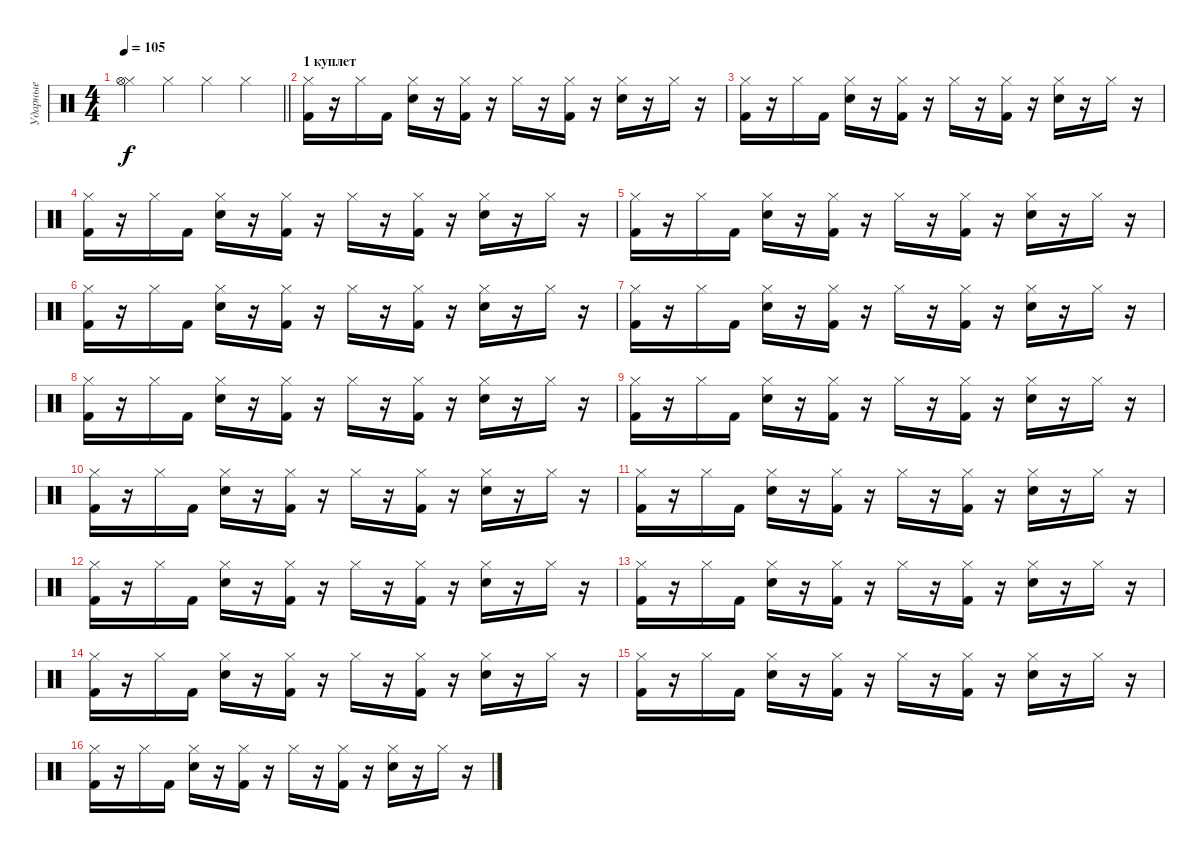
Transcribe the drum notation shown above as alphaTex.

\track ("Ударные" "Ударные") {instrument percussion}
\staff {score}
\articulation defaults
\ts (4 4)
\tempo 105
\clef neutral
\barLineRight lightlight
\ks c
("Hi-Hat (closed)" "Hi-Hat (open)").4{dy f} "Hi-Hat (closed)".4 "Hi-Hat (closed)".4 "Hi-Hat (closed)".4 |
\section ("" "1 куплет")
("Hi-Hat (closed)" "Kick (hit) 2").16 r.16 "Hi-Hat (closed)".16 "Kick (hit) 2".16 ("Hi-Hat (closed)" "Electric Snare (hit)").16 r.16 ("Hi-Hat (closed)" "Kick (hit) 2").16 r.16 "Hi-Hat (closed)".16 r.16 ("Hi-Hat (closed)" "Kick (hit) 2").16 r.16 ("Hi-Hat (closed)" "Electric Snare (hit)").16 r.16 "Hi-Hat (closed)".16 r.16 |
("Hi-Hat (closed)" "Kick (hit) 2").16 r.16 "Hi-Hat (closed)".16 "Kick (hit) 2".16 ("Hi-Hat (closed)" "Electric Snare (hit)").16 r.16 ("Hi-Hat (closed)" "Kick (hit) 2").16 r.16 "Hi-Hat (closed)".16 r.16 ("Hi-Hat (closed)" "Kick (hit) 2").16 r.16 ("Hi-Hat (closed)" "Electric Snare (hit)").16 r.16 "Hi-Hat (closed)".16 r.16 |
("Hi-Hat (closed)" "Kick (hit) 2").16 r.16 "Hi-Hat (closed)".16 "Kick (hit) 2".16 ("Hi-Hat (closed)" "Electric Snare (hit)").16 r.16 ("Hi-Hat (closed)" "Kick (hit) 2").16 r.16 "Hi-Hat (closed)".16 r.16 ("Hi-Hat (closed)" "Kick (hit) 2").16 r.16 ("Hi-Hat (closed)" "Electric Snare (hit)").16 r.16 "Hi-Hat (closed)".16 r.16 |
("Hi-Hat (closed)" "Kick (hit) 2").16 r.16 "Hi-Hat (closed)".16 "Kick (hit) 2".16 ("Hi-Hat (closed)" "Electric Snare (hit)").16 r.16 ("Hi-Hat (closed)" "Kick (hit) 2").16 r.16 "Hi-Hat (closed)".16 r.16 ("Hi-Hat (closed)" "Kick (hit) 2").16 r.16 ("Hi-Hat (closed)" "Electric Snare (hit)").16 r.16 "Hi-Hat (closed)".16 r.16 |
("Hi-Hat (closed)" "Kick (hit) 2").16 r.16 "Hi-Hat (closed)".16 "Kick (hit) 2".16 ("Hi-Hat (closed)" "Electric Snare (hit)").16 r.16 ("Hi-Hat (closed)" "Kick (hit) 2").16 r.16 "Hi-Hat (closed)".16 r.16 ("Hi-Hat (closed)" "Kick (hit) 2").16 r.16 ("Hi-Hat (closed)" "Electric Snare (hit)").16 r.16 "Hi-Hat (closed)".16 r.16 |
("Hi-Hat (closed)" "Kick (hit) 2").16 r.16 "Hi-Hat (closed)".16 "Kick (hit) 2".16 ("Hi-Hat (closed)" "Electric Snare (hit)").16 r.16 ("Hi-Hat (closed)" "Kick (hit) 2").16 r.16 "Hi-Hat (closed)".16 r.16 ("Hi-Hat (closed)" "Kick (hit) 2").16 r.16 ("Hi-Hat (closed)" "Electric Snare (hit)").16 r.16 "Hi-Hat (closed)".16 r.16 |
("Hi-Hat (closed)" "Kick (hit) 2").16 r.16 "Hi-Hat (closed)".16 "Kick (hit) 2".16 ("Hi-Hat (closed)" "Electric Snare (hit)").16 r.16 ("Hi-Hat (closed)" "Kick (hit) 2").16 r.16 "Hi-Hat (closed)".16 r.16 ("Hi-Hat (closed)" "Kick (hit) 2").16 r.16 ("Hi-Hat (closed)" "Electric Snare (hit)").16 r.16 "Hi-Hat (closed)".16 r.16 |
("Hi-Hat (closed)" "Kick (hit) 2").16 r.16 "Hi-Hat (closed)".16 "Kick (hit) 2".16 ("Hi-Hat (closed)" "Electric Snare (hit)").16 r.16 ("Hi-Hat (closed)" "Kick (hit) 2").16 r.16 "Hi-Hat (closed)".16 r.16 ("Hi-Hat (closed)" "Kick (hit) 2").16 r.16 ("Hi-Hat (closed)" "Electric Snare (hit)").16 r.16 "Hi-Hat (closed)".16 r.16 |
("Hi-Hat (closed)" "Kick (hit) 2").16 r.16 "Hi-Hat (closed)".16 "Kick (hit) 2".16 ("Hi-Hat (closed)" "Electric Snare (hit)").16 r.16 ("Hi-Hat (closed)" "Kick (hit) 2").16 r.16 "Hi-Hat (closed)".16 r.16 ("Hi-Hat (closed)" "Kick (hit) 2").16 r.16 ("Hi-Hat (closed)" "Electric Snare (hit)").16 r.16 "Hi-Hat (closed)".16 r.16 |
("Hi-Hat (closed)" "Kick (hit) 2").16 r.16 "Hi-Hat (closed)".16 "Kick (hit) 2".16 ("Hi-Hat (closed)" "Electric Snare (hit)").16 r.16 ("Hi-Hat (closed)" "Kick (hit) 2").16 r.16 "Hi-Hat (closed)".16 r.16 ("Hi-Hat (closed)" "Kick (hit) 2").16 r.16 ("Hi-Hat (closed)" "Electric Snare (hit)").16 r.16 "Hi-Hat (closed)".16 r.16 |
("Hi-Hat (closed)" "Kick (hit) 2").16 r.16 "Hi-Hat (closed)".16 "Kick (hit) 2".16 ("Hi-Hat (closed)" "Electric Snare (hit)").16 r.16 ("Hi-Hat (closed)" "Kick (hit) 2").16 r.16 "Hi-Hat (closed)".16 r.16 ("Hi-Hat (closed)" "Kick (hit) 2").16 r.16 ("Hi-Hat (closed)" "Electric Snare (hit)").16 r.16 "Hi-Hat (closed)".16 r.16 |
("Hi-Hat (closed)" "Kick (hit) 2").16 r.16 "Hi-Hat (closed)".16 "Kick (hit) 2".16 ("Hi-Hat (closed)" "Electric Snare (hit)").16 r.16 ("Hi-Hat (closed)" "Kick (hit) 2").16 r.16 "Hi-Hat (closed)".16 r.16 ("Hi-Hat (closed)" "Kick (hit) 2").16 r.16 ("Hi-Hat (closed)" "Electric Snare (hit)").16 r.16 "Hi-Hat (closed)".16 r.16 |
("Hi-Hat (closed)" "Kick (hit) 2").16 r.16 "Hi-Hat (closed)".16 "Kick (hit) 2".16 ("Hi-Hat (closed)" "Electric Snare (hit)").16 r.16 ("Hi-Hat (closed)" "Kick (hit) 2").16 r.16 "Hi-Hat (closed)".16 r.16 ("Hi-Hat (closed)" "Kick (hit) 2").16 r.16 ("Hi-Hat (closed)" "Electric Snare (hit)").16 r.16 "Hi-Hat (closed)".16 r.16 |
("Hi-Hat (closed)" "Kick (hit) 2").16 r.16 "Hi-Hat (closed)".16 "Kick (hit) 2".16 ("Hi-Hat (closed)" "Electric Snare (hit)").16 r.16 ("Hi-Hat (closed)" "Kick (hit) 2").16 r.16 "Hi-Hat (closed)".16 r.16 ("Hi-Hat (closed)" "Kick (hit) 2").16 r.16 ("Hi-Hat (closed)" "Electric Snare (hit)").16 r.16 "Hi-Hat (closed)".16 r.16 |
("Hi-Hat (closed)" "Kick (hit) 2").16 r.16 "Hi-Hat (closed)".16 "Kick (hit) 2".16 ("Hi-Hat (closed)" "Electric Snare (hit)").16 r.16 ("Hi-Hat (closed)" "Kick (hit) 2").16 r.16 "Hi-Hat (closed)".16 r.16 ("Hi-Hat (closed)" "Kick (hit) 2").16 r.16 ("Hi-Hat (closed)" "Electric Snare (hit)").16 r.16 "Hi-Hat (closed)".16 r.16
